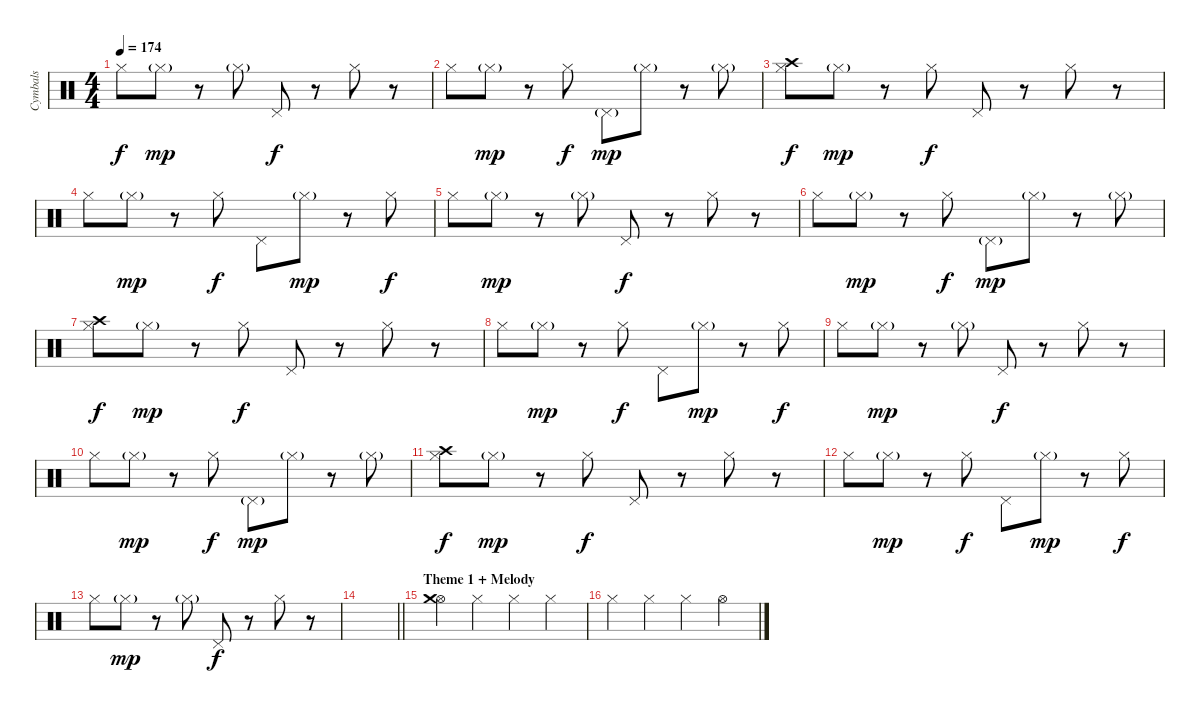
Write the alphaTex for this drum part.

\track ("Cymbals" "Cymbals") {instrument percussion}
\staff {score}
\articulation defaults
\ts (4 4)
\tempo 174
\clef neutral
\ks c "Hi-Hat (closed)".8{dy f} "Hi-Hat (closed)"{g}.8{dy mp}
r.8 "Hi-Hat (closed)"{g}.8 "Pedal Hi-Hat (hit)".8{dy f} r.8 "Hi-Hat (closed)".8 r.8 |
"Hi-Hat (closed)".8 "Hi-Hat (closed)"{g}.8{dy mp} r.8 "Hi-Hat (closed)".8{dy f} "Pedal Hi-Hat (hit)"{g}.8{dy mp} "Hi-Hat (closed)"{g}.8 r.8 "Hi-Hat (closed)"{g}.8 |
("Crash high (hit)" "Hi-Hat (closed)").8{dy f} "Hi-Hat (closed)"{g}.8{dy mp} r.8 "Hi-Hat (closed)".8{dy f} "Pedal Hi-Hat (hit)".8 r.8 "Hi-Hat (closed)".8 r.8 |
"Hi-Hat (closed)".8 "Hi-Hat (closed)"{g}.8{dy mp} r.8 "Hi-Hat (closed)".8{dy f} "Pedal Hi-Hat (hit)".8 "Hi-Hat (closed)"{g}.8{dy mp} r.8 "Hi-Hat (closed)".8{dy f} |
"Hi-Hat (closed)".8 "Hi-Hat (closed)"{g}.8{dy mp} r.8 "Hi-Hat (closed)"{g}.8 "Pedal Hi-Hat (hit)".8{dy f} r.8 "Hi-Hat (closed)".8 r.8 |
"Hi-Hat (closed)".8 "Hi-Hat (closed)"{g}.8{dy mp} r.8 "Hi-Hat (closed)".8{dy f} "Pedal Hi-Hat (hit)"{g}.8{dy mp} "Hi-Hat (closed)"{g}.8 r.8 "Hi-Hat (closed)"{g}.8 |
("Crash high (hit)" "Hi-Hat (closed)").8{dy f} "Hi-Hat (closed)"{g}.8{dy mp} r.8 "Hi-Hat (closed)".8{dy f} "Pedal Hi-Hat (hit)".8 r.8 "Hi-Hat (closed)".8 r.8 |
"Hi-Hat (closed)".8 "Hi-Hat (closed)"{g}.8{dy mp} r.8 "Hi-Hat (closed)".8{dy f} "Pedal Hi-Hat (hit)".8 "Hi-Hat (closed)"{g}.8{dy mp} r.8 "Hi-Hat (closed)".8{dy f} |
"Hi-Hat (closed)".8 "Hi-Hat (closed)"{g}.8{dy mp} r.8 "Hi-Hat (closed)"{g}.8 "Pedal Hi-Hat (hit)".8{dy f} r.8 "Hi-Hat (closed)".8 r.8 |
"Hi-Hat (closed)".8 "Hi-Hat (closed)"{g}.8{dy mp} r.8 "Hi-Hat (closed)".8{dy f} "Pedal Hi-Hat (hit)"{g}.8{dy mp} "Hi-Hat (closed)"{g}.8 r.8 "Hi-Hat (closed)"{g}.8 |
("Crash high (hit)" "Hi-Hat (closed)").8{dy f} "Hi-Hat (closed)"{g}.8{dy mp} r.8 "Hi-Hat (closed)".8{dy f} "Pedal Hi-Hat (hit)".8 r.8 "Hi-Hat (closed)".8 r.8 |
"Hi-Hat (closed)".8 "Hi-Hat (closed)"{g}.8{dy mp} r.8 "Hi-Hat (closed)".8{dy f} "Pedal Hi-Hat (hit)".8 "Hi-Hat (closed)"{g}.8{dy mp} r.8 "Hi-Hat (closed)".8{dy f} |
"Hi-Hat (closed)".8 "Hi-Hat (closed)"{g}.8{dy mp} r.8 "Hi-Hat (closed)"{g}.8 "Pedal Hi-Hat (hit)".8{dy f} r.8 "Hi-Hat (closed)".8 r.8 |
\barLineRight lightlight
|
\section ("" "Theme 1 + Melody")
("Hi-Hat (open)" "Crash medium (hit)").4 "Hi-Hat (closed)".4 "Hi-Hat (closed)".4 "Hi-Hat (closed)".4 |
"Hi-Hat (closed)".4 "Hi-Hat (closed)".4 "Hi-Hat (closed)".4 "Hi-Hat (open)".4
